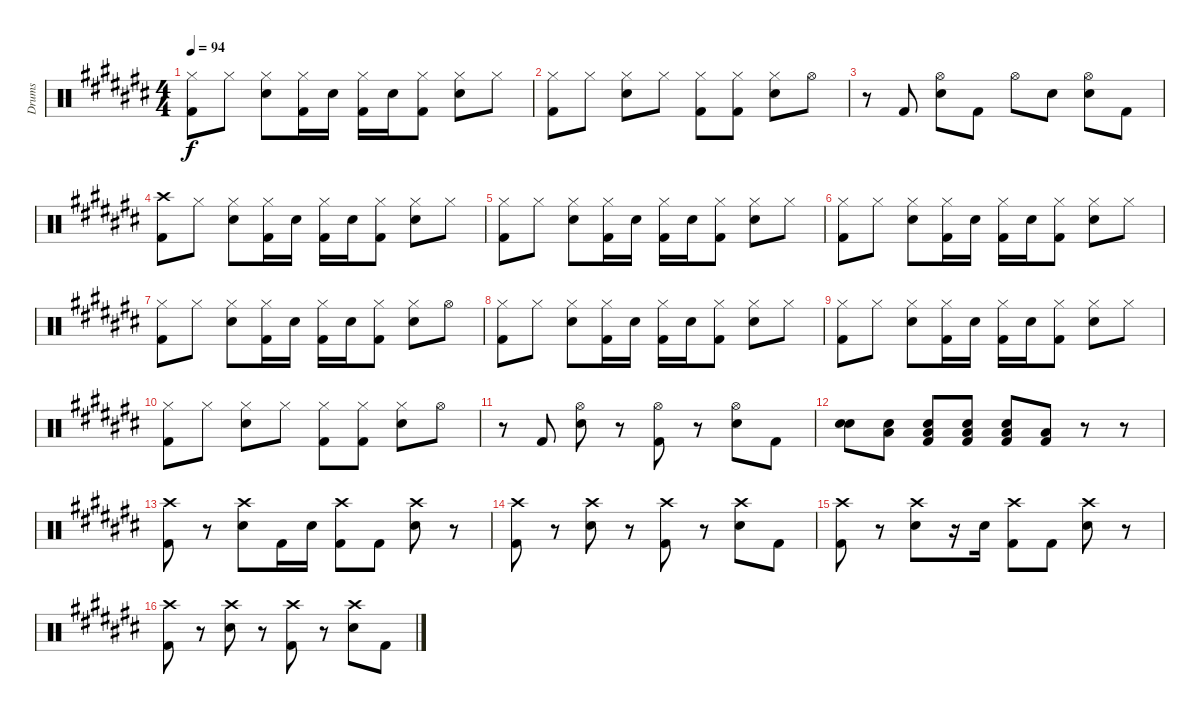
\track ("Drums" "Drums") {instrument percussion}
\staff {score}
\articulation defaults
\ts (4 4)
\tempo 94
\clef neutral
\ks c#
("Hi-Hat (closed)" "Kick (hit) 2").8{dy f} "Hi-Hat (closed)".8 ("Hi-Hat (closed)" "Snare (hit) 2").8 ("Hi-Hat (closed)" "Kick (hit) 2").16 "Snare (hit) 2".16 ("Hi-Hat (closed)" "Kick (hit) 2").16 "Snare (hit) 2".16 ("Hi-Hat (closed)" "Kick (hit) 2").8 ("Hi-Hat (closed)" "Snare (hit) 2").8 "Hi-Hat (closed)".8 |
("Hi-Hat (closed)" "Kick (hit) 2").8 "Hi-Hat (closed)".8 ("Hi-Hat (closed)" "Snare (hit) 2").8 "Hi-Hat (closed)".8 ("Hi-Hat (closed)" "Kick (hit) 2").8 ("Hi-Hat (closed)" "Kick (hit) 2").8 ("Hi-Hat (closed)" "Snare (hit) 2").8 "Hi-Hat (open)".8 |
r.8 "Kick (hit) 2".8 ("Hi-Hat (open)" "Snare (hit) 2").8 "Kick (hit) 2".8 "Hi-Hat (open)".8 "Snare (hit) 2".8 ("Hi-Hat (open)" "Snare (hit) 2").8 "Kick (hit) 2".8 |
("Crash high (hit)" "Kick (hit) 2").8 "Hi-Hat (closed)".8 ("Hi-Hat (closed)" "Snare (hit) 2").8 ("Hi-Hat (closed)" "Kick (hit) 2").16 "Snare (hit) 2".16 ("Hi-Hat (closed)" "Kick (hit) 2").16 "Snare (hit) 2".16 ("Hi-Hat (closed)" "Kick (hit) 2").8 ("Hi-Hat (closed)" "Snare (hit) 2").8 "Hi-Hat (closed)".8 |
("Hi-Hat (closed)" "Kick (hit) 2").8 "Hi-Hat (closed)".8 ("Hi-Hat (closed)" "Snare (hit) 2").8 ("Hi-Hat (closed)" "Kick (hit) 2").16 "Snare (hit) 2".16 ("Hi-Hat (closed)" "Kick (hit) 2").16 "Snare (hit) 2".16 ("Hi-Hat (closed)" "Kick (hit) 2").8 ("Hi-Hat (closed)" "Snare (hit) 2").8 "Hi-Hat (closed)".8 |
("Hi-Hat (closed)" "Kick (hit) 2").8 "Hi-Hat (closed)".8 ("Hi-Hat (closed)" "Snare (hit) 2").8 ("Hi-Hat (closed)" "Kick (hit) 2").16 "Snare (hit) 2".16 ("Hi-Hat (closed)" "Kick (hit) 2").16 "Snare (hit) 2".16 ("Hi-Hat (closed)" "Kick (hit) 2").8 ("Hi-Hat (closed)" "Snare (hit) 2").8 "Hi-Hat (closed)".8 |
("Hi-Hat (closed)" "Kick (hit) 2").8 "Hi-Hat (closed)".8 ("Hi-Hat (closed)" "Snare (hit) 2").8 ("Hi-Hat (closed)" "Kick (hit) 2").16 "Snare (hit) 2".16 ("Hi-Hat (closed)" "Kick (hit) 2").16 "Snare (hit) 2".16 ("Hi-Hat (closed)" "Kick (hit) 2").8 ("Hi-Hat (closed)" "Snare (hit) 2").8 "Hi-Hat (open)".8 |
("Hi-Hat (closed)" "Kick (hit) 2").8 "Hi-Hat (closed)".8 ("Hi-Hat (closed)" "Snare (hit) 2").8 ("Hi-Hat (closed)" "Kick (hit) 2").16 "Snare (hit) 2".16 ("Hi-Hat (closed)" "Kick (hit) 2").16 "Snare (hit) 2".16 ("Hi-Hat (closed)" "Kick (hit) 2").8 ("Hi-Hat (closed)" "Snare (hit) 2").8 "Hi-Hat (closed)".8 |
("Hi-Hat (closed)" "Kick (hit) 2").8 "Hi-Hat (closed)".8 ("Hi-Hat (closed)" "Snare (hit) 2").8 ("Hi-Hat (closed)" "Kick (hit) 2").16 "Snare (hit) 2".16 ("Hi-Hat (closed)" "Kick (hit) 2").16 "Snare (hit) 2".16 ("Hi-Hat (closed)" "Kick (hit) 2").8 ("Hi-Hat (closed)" "Snare (hit) 2").8 "Hi-Hat (closed)".8 |
("Hi-Hat (closed)" "Kick (hit) 2").8 "Hi-Hat (closed)".8 ("Hi-Hat (closed)" "Snare (hit) 2").8 "Hi-Hat (closed)".8 ("Hi-Hat (closed)" "Kick (hit) 2").8 ("Hi-Hat (closed)" "Kick (hit) 2").8 ("Hi-Hat (closed)" "Snare (hit) 2").8 "Hi-Hat (open)".8 |
r.8 "Kick (hit) 2".8 ("Hi-Hat (open)" "Snare (hit) 2").8 r.8 ("Hi-Hat (open)" "Kick (hit) 2").8 r.8 ("Hi-Hat (open)" "Snare (hit) 2").8 "Kick (hit) 2".8 |
("Snare (hit) 2" "Snare (hit) 2").8 ("Snare (hit) 2" "Low Floor Tom (hit)").8 ("Snare (hit) 2" "Low Floor Tom (hit)" "Kick (hit) 2").8 ("Snare (hit) 2" "Low Floor Tom (hit)" "Kick (hit) 2").8 ("Snare (hit) 2" "Low Floor Tom (hit)" "Kick (hit) 2").8 ("Low Floor Tom (hit)" "Kick (hit) 2").8 r.8 r.8 |
("Crash high (hit)" "Kick (hit) 2").8 r.8 ("Crash high (hit)" "Snare (hit) 2").8 "Kick (hit) 2".16 "Snare (hit) 2".16 ("Crash high (hit)" "Kick (hit) 2").8 "Kick (hit) 2".8 ("Crash high (hit)" "Snare (hit) 2").8 r.8 |
("Crash high (hit)" "Kick (hit) 2").8 r.8 ("Crash high (hit)" "Snare (hit) 2").8 r.8 ("Crash high (hit)" "Kick (hit) 2").8 r.8 ("Crash high (hit)" "Snare (hit) 2").8 "Kick (hit) 2".8 |
("Crash high (hit)" "Kick (hit) 2").8 r.8 ("Crash high (hit)" "Snare (hit) 2").8 r.16 "Snare (hit) 2".16 ("Crash high (hit)" "Kick (hit) 2").8 "Kick (hit) 2".8 ("Crash high (hit)" "Snare (hit) 2").8 r.8 |
("Crash high (hit)" "Kick (hit) 2").8 r.8 ("Crash high (hit)" "Snare (hit) 2").8 r.8 ("Crash high (hit)" "Kick (hit) 2").8 r.8 ("Crash high (hit)" "Snare (hit) 2").8 "Kick (hit) 2".8
